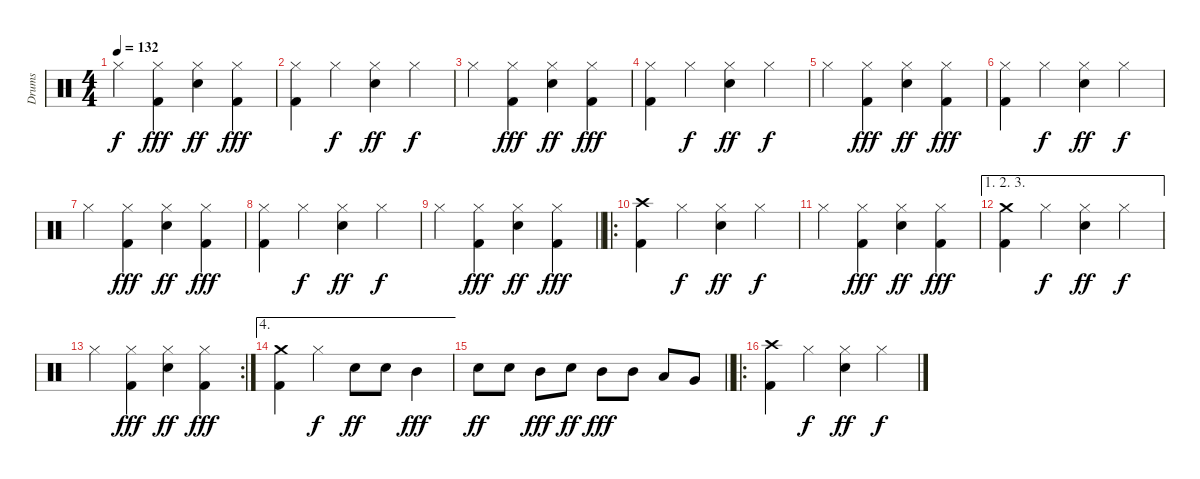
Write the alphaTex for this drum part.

\track ("Drums" "Drums") {instrument percussion}
\staff {score}
\articulation defaults
\ts (4 4)
\tempo 132
\clef neutral
\ks c "Hi-Hat (closed)".4{dy f}
("Hi-Hat (closed)" "Kick (hit) 2").4{dy fff} ("Hi-Hat (closed)" "Electric Snare (hit)").4{dy ff} ("Hi-Hat (closed)" "Kick (hit) 2").4{dy fff} |
("Hi-Hat (closed)" "Kick (hit) 2").4 "Hi-Hat (closed)".4{dy f} ("Hi-Hat (closed)" "Electric Snare (hit)").4{dy ff} "Hi-Hat (closed)".4{dy f} |
"Hi-Hat (closed)".4 ("Hi-Hat (closed)" "Kick (hit) 2").4{dy fff} ("Hi-Hat (closed)" "Electric Snare (hit)").4{dy ff} ("Hi-Hat (closed)" "Kick (hit) 2").4{dy fff} |
("Hi-Hat (closed)" "Kick (hit) 2").4 "Hi-Hat (closed)".4{dy f} ("Hi-Hat (closed)" "Electric Snare (hit)").4{dy ff} "Hi-Hat (closed)".4{dy f} |
"Hi-Hat (closed)".4 ("Hi-Hat (closed)" "Kick (hit) 2").4{dy fff} ("Hi-Hat (closed)" "Electric Snare (hit)").4{dy ff} ("Hi-Hat (closed)" "Kick (hit) 2").4{dy fff} |
("Hi-Hat (closed)" "Kick (hit) 2").4 "Hi-Hat (closed)".4{dy f} ("Hi-Hat (closed)" "Electric Snare (hit)").4{dy ff} "Hi-Hat (closed)".4{dy f} |
"Hi-Hat (closed)".4 ("Hi-Hat (closed)" "Kick (hit) 2").4{dy fff} ("Hi-Hat (closed)" "Electric Snare (hit)").4{dy ff} ("Hi-Hat (closed)" "Kick (hit) 2").4{dy fff} |
("Hi-Hat (closed)" "Kick (hit) 2").4 "Hi-Hat (closed)".4{dy f} ("Hi-Hat (closed)" "Electric Snare (hit)").4{dy ff} "Hi-Hat (closed)".4{dy f} |
\barLineRight lightlight "Hi-Hat (closed)".4
("Hi-Hat (closed)" "Kick (hit) 2").4{dy fff} ("Hi-Hat (closed)" "Electric Snare (hit)").4{dy ff} ("Hi-Hat (closed)" "Kick (hit) 2").4{dy fff} |
\ro
("Crash high (hit)" "Kick (hit) 2").4 "Hi-Hat (closed)".4{dy f} ("Hi-Hat (closed)" "Electric Snare (hit)").4{dy ff} "Hi-Hat (closed)".4{dy f} |
"Hi-Hat (closed)".4 ("Hi-Hat (closed)" "Kick (hit) 2").4{dy fff} ("Hi-Hat (closed)" "Electric Snare (hit)").4{dy ff} ("Hi-Hat (closed)" "Kick (hit) 2").4{dy fff} |
\ae (1 2 3)
("Crash medium (hit)" "Kick (hit) 2").4 "Hi-Hat (closed)".4{dy f} ("Hi-Hat (closed)" "Electric Snare (hit)").4{dy ff} "Hi-Hat (closed)".4{dy f} |
\rc 2 "Hi-Hat (closed)".4
("Hi-Hat (closed)" "Kick (hit) 2").4{dy fff} ("Hi-Hat (closed)" "Electric Snare (hit)").4{dy ff} ("Hi-Hat (closed)" "Kick (hit) 2").4{dy fff} |
\ae 4
("Crash medium (hit)" "Kick (hit) 2").4 "Hi-Hat (closed)".4{dy f} "Electric Snare (hit)".8{dy ff} "Electric Snare (hit)".8 "Mid Tom (hit)".4{dy fff} |
\barLineRight lightlight "Electric Snare (hit)".8{dy ff} "Electric Snare (hit)".8 "Mid Tom (hit)".8{dy fff} "Electric Snare (hit)".8{dy ff} "Mid Tom (hit)".8{dy fff} "Mid Tom (hit)".8 "Low Tom (hit)".8 "Very Low Tom (hit)".8
|
\ro
("Crash high (hit)" "Kick (hit) 2").4 "Hi-Hat (closed)".4{dy f} ("Hi-Hat (closed)" "Electric Snare (hit)").4{dy ff} "Hi-Hat (closed)".4{dy f}
